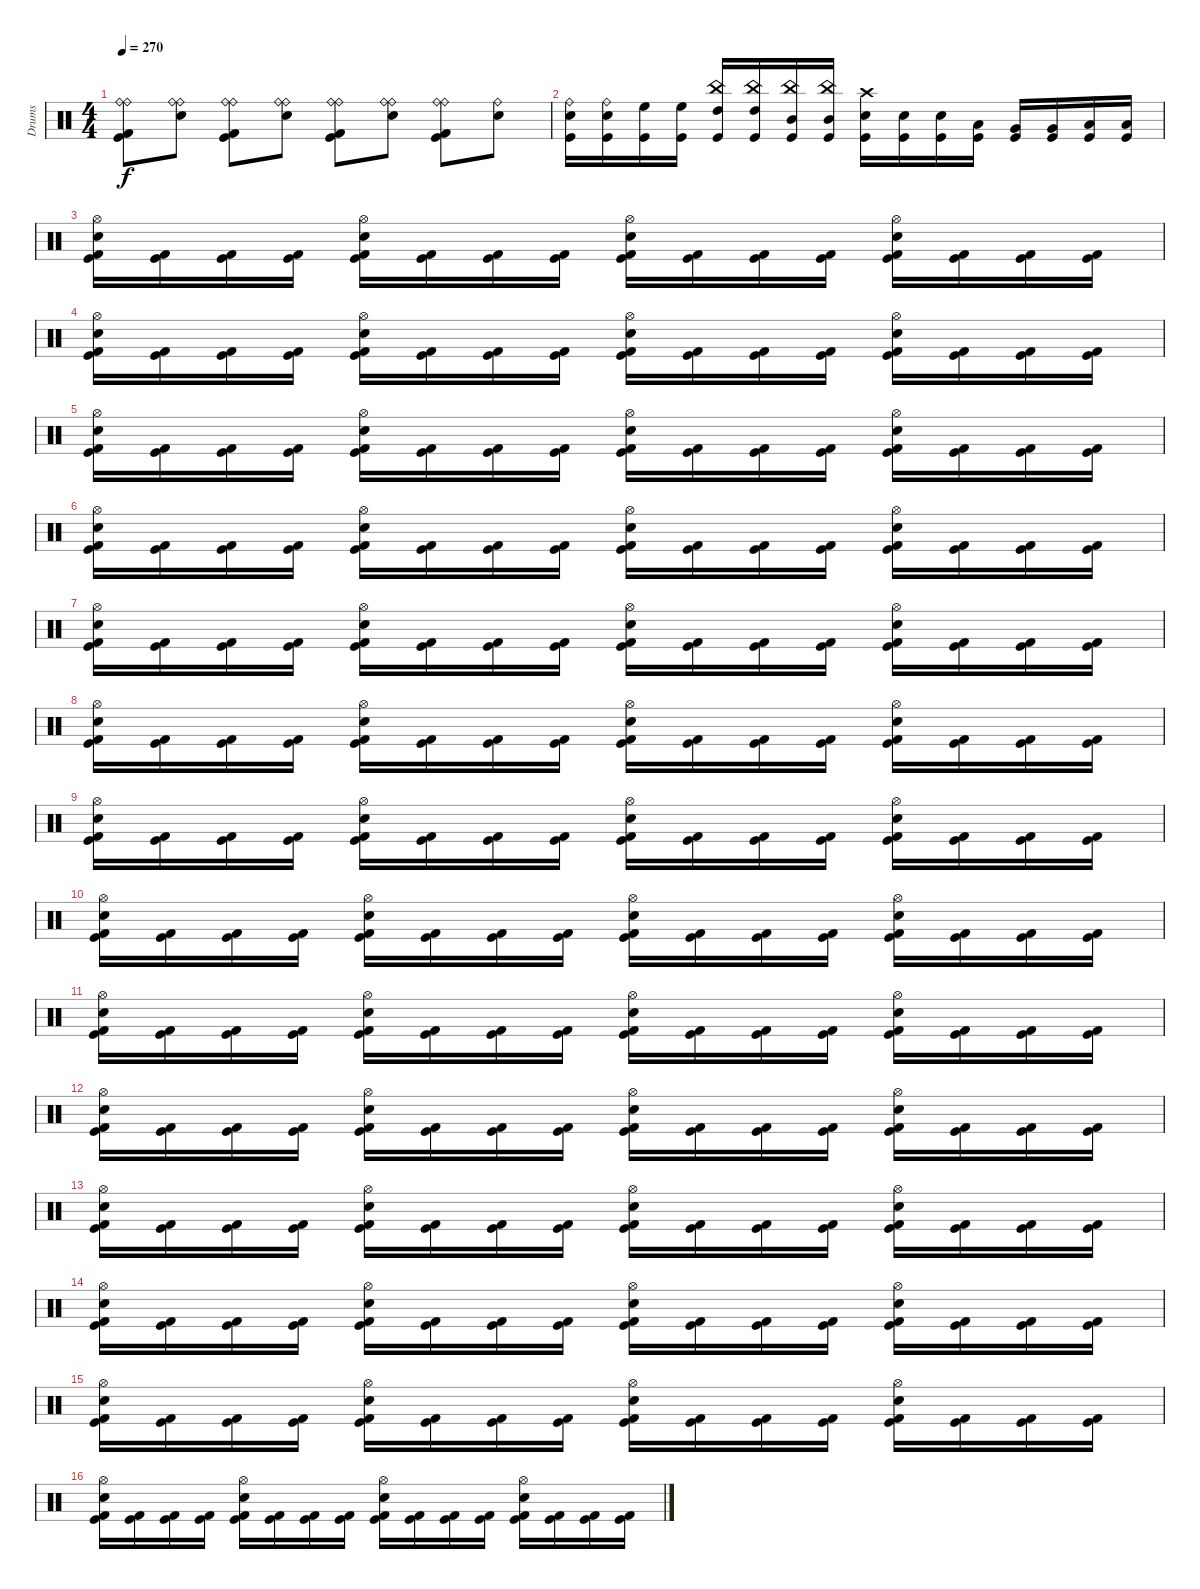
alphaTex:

\track ("Drums" "Drums") {instrument percussion}
\staff {score}
\articulation defaults
\ts (4 4)
\tempo 270
\clef neutral
\ks c
("Ride (bell)" "Ride (bell)" "Kick (hit) 2" "Kick (hit)").8{dy f} ("Ride (bell)" "Ride (bell)" "Electric Snare (hit)").8 ("Ride (bell)" "Ride (bell)" "Kick (hit) 2" "Kick (hit)").8 ("Ride (bell)" "Ride (bell)" "Electric Snare (hit)").8 ("Ride (bell)" "Ride (bell)" "Kick (hit) 2" "Kick (hit)").8 ("Ride (bell)" "Ride (bell)" "Electric Snare (hit)").8 ("Ride (bell)" "Ride (bell)" "Kick (hit) 2" "Kick (hit)").8 ("Ride (bell)" "Electric Snare (hit)").8 |
("Ride (bell)" "Electric Snare (hit)" "Kick (hit)").16 ("Ride (bell)" "Electric Snare (hit)" "Kick (hit)").16 ("High Floor Tom (hit)" "Kick (hit)").16 ("High Floor Tom (hit)" "Kick (hit)").16 ("China (hit)" "High Tom (hit)" "Kick (hit)").16 ("China (hit)" "High Tom (hit)" "Kick (hit)").16 ("China (hit)" "Mid Tom (hit)" "Kick (hit)").16 ("China (hit)" "Mid Tom (hit)" "Kick (hit)").16 ("Crash high (hit)" "Electric Snare (hit)" "Kick (hit)").16 ("Electric Snare (hit)" "Kick (hit)").16 ("Electric Snare (hit)" "Kick (hit)").16 ("Low Floor Tom (hit)" "Kick (hit)").16 ("Very Low Tom (hit)" "Kick (hit)").16 ("Very Low Tom (hit)" "Kick (hit)").16 ("Low Floor Tom (hit)" "Kick (hit)").16 ("Low Floor Tom (hit)" "Kick (hit)").16 |
("Kick (hit) 2" "Hi-Hat (open)" "Electric Snare (hit)" "Kick (hit)").16 ("Kick (hit) 2" "Kick (hit)").16 ("Kick (hit) 2" "Kick (hit)").16 ("Kick (hit) 2" "Kick (hit)").16 ("Kick (hit) 2" "Hi-Hat (open)" "Electric Snare (hit)" "Kick (hit)").16 ("Kick (hit) 2" "Kick (hit)").16 ("Kick (hit) 2" "Kick (hit)").16 ("Kick (hit) 2" "Kick (hit)").16 ("Kick (hit) 2" "Hi-Hat (open)" "Electric Snare (hit)" "Kick (hit)").16 ("Kick (hit) 2" "Kick (hit)").16 ("Kick (hit) 2" "Kick (hit)").16 ("Kick (hit) 2" "Kick (hit)").16 ("Kick (hit) 2" "Hi-Hat (open)" "Electric Snare (hit)" "Kick (hit)").16 ("Kick (hit) 2" "Kick (hit)").16 ("Kick (hit) 2" "Kick (hit)").16 ("Kick (hit) 2" "Kick (hit)").16 |
("Kick (hit) 2" "Hi-Hat (open)" "Electric Snare (hit)" "Kick (hit)").16 ("Kick (hit) 2" "Kick (hit)").16 ("Kick (hit) 2" "Kick (hit)").16 ("Kick (hit) 2" "Kick (hit)").16 ("Kick (hit) 2" "Hi-Hat (open)" "Electric Snare (hit)" "Kick (hit)").16 ("Kick (hit) 2" "Kick (hit)").16 ("Kick (hit) 2" "Kick (hit)").16 ("Kick (hit) 2" "Kick (hit)").16 ("Kick (hit) 2" "Hi-Hat (open)" "Electric Snare (hit)" "Kick (hit)").16 ("Kick (hit) 2" "Kick (hit)").16 ("Kick (hit) 2" "Kick (hit)").16 ("Kick (hit) 2" "Kick (hit)").16 ("Kick (hit) 2" "Hi-Hat (open)" "Electric Snare (hit)" "Kick (hit)").16 ("Kick (hit) 2" "Kick (hit)").16 ("Kick (hit) 2" "Kick (hit)").16 ("Kick (hit) 2" "Kick (hit)").16 |
("Kick (hit) 2" "Hi-Hat (open)" "Electric Snare (hit)" "Kick (hit)").16 ("Kick (hit) 2" "Kick (hit)").16 ("Kick (hit) 2" "Kick (hit)").16 ("Kick (hit) 2" "Kick (hit)").16 ("Kick (hit) 2" "Hi-Hat (open)" "Electric Snare (hit)" "Kick (hit)").16 ("Kick (hit) 2" "Kick (hit)").16 ("Kick (hit) 2" "Kick (hit)").16 ("Kick (hit) 2" "Kick (hit)").16 ("Kick (hit) 2" "Hi-Hat (open)" "Electric Snare (hit)" "Kick (hit)").16 ("Kick (hit) 2" "Kick (hit)").16 ("Kick (hit) 2" "Kick (hit)").16 ("Kick (hit) 2" "Kick (hit)").16 ("Kick (hit) 2" "Hi-Hat (open)" "Electric Snare (hit)" "Kick (hit)").16 ("Kick (hit) 2" "Kick (hit)").16 ("Kick (hit) 2" "Kick (hit)").16 ("Kick (hit) 2" "Kick (hit)").16 |
("Kick (hit) 2" "Hi-Hat (open)" "Electric Snare (hit)" "Kick (hit)").16 ("Kick (hit) 2" "Kick (hit)").16 ("Kick (hit) 2" "Kick (hit)").16 ("Kick (hit) 2" "Kick (hit)").16 ("Kick (hit) 2" "Hi-Hat (open)" "Electric Snare (hit)" "Kick (hit)").16 ("Kick (hit) 2" "Kick (hit)").16 ("Kick (hit) 2" "Kick (hit)").16 ("Kick (hit) 2" "Kick (hit)").16 ("Kick (hit) 2" "Hi-Hat (open)" "Electric Snare (hit)" "Kick (hit)").16 ("Kick (hit) 2" "Kick (hit)").16 ("Kick (hit) 2" "Kick (hit)").16 ("Kick (hit) 2" "Kick (hit)").16 ("Kick (hit) 2" "Hi-Hat (open)" "Electric Snare (hit)" "Kick (hit)").16 ("Kick (hit) 2" "Kick (hit)").16 ("Kick (hit) 2" "Kick (hit)").16 ("Kick (hit) 2" "Kick (hit)").16 |
("Kick (hit) 2" "Hi-Hat (open)" "Electric Snare (hit)" "Kick (hit)").16 ("Kick (hit) 2" "Kick (hit)").16 ("Kick (hit) 2" "Kick (hit)").16 ("Kick (hit) 2" "Kick (hit)").16 ("Kick (hit) 2" "Hi-Hat (open)" "Electric Snare (hit)" "Kick (hit)").16 ("Kick (hit) 2" "Kick (hit)").16 ("Kick (hit) 2" "Kick (hit)").16 ("Kick (hit) 2" "Kick (hit)").16 ("Kick (hit) 2" "Hi-Hat (open)" "Electric Snare (hit)" "Kick (hit)").16 ("Kick (hit) 2" "Kick (hit)").16 ("Kick (hit) 2" "Kick (hit)").16 ("Kick (hit) 2" "Kick (hit)").16 ("Kick (hit) 2" "Hi-Hat (open)" "Electric Snare (hit)" "Kick (hit)").16 ("Kick (hit) 2" "Kick (hit)").16 ("Kick (hit) 2" "Kick (hit)").16 ("Kick (hit) 2" "Kick (hit)").16 |
("Kick (hit) 2" "Hi-Hat (open)" "Electric Snare (hit)" "Kick (hit)").16 ("Kick (hit) 2" "Kick (hit)").16 ("Kick (hit) 2" "Kick (hit)").16 ("Kick (hit) 2" "Kick (hit)").16 ("Kick (hit) 2" "Hi-Hat (open)" "Electric Snare (hit)" "Kick (hit)").16 ("Kick (hit) 2" "Kick (hit)").16 ("Kick (hit) 2" "Kick (hit)").16 ("Kick (hit) 2" "Kick (hit)").16 ("Kick (hit) 2" "Hi-Hat (open)" "Electric Snare (hit)" "Kick (hit)").16 ("Kick (hit) 2" "Kick (hit)").16 ("Kick (hit) 2" "Kick (hit)").16 ("Kick (hit) 2" "Kick (hit)").16 ("Kick (hit) 2" "Hi-Hat (open)" "Electric Snare (hit)" "Kick (hit)").16 ("Kick (hit) 2" "Kick (hit)").16 ("Kick (hit) 2" "Kick (hit)").16 ("Kick (hit) 2" "Kick (hit)").16 |
("Kick (hit) 2" "Hi-Hat (open)" "Electric Snare (hit)" "Kick (hit)").16 ("Kick (hit) 2" "Kick (hit)").16 ("Kick (hit) 2" "Kick (hit)").16 ("Kick (hit) 2" "Kick (hit)").16 ("Kick (hit) 2" "Hi-Hat (open)" "Electric Snare (hit)" "Kick (hit)").16 ("Kick (hit) 2" "Kick (hit)").16 ("Kick (hit) 2" "Kick (hit)").16 ("Kick (hit) 2" "Kick (hit)").16 ("Kick (hit) 2" "Hi-Hat (open)" "Electric Snare (hit)" "Kick (hit)").16 ("Kick (hit) 2" "Kick (hit)").16 ("Kick (hit) 2" "Kick (hit)").16 ("Kick (hit) 2" "Kick (hit)").16 ("Kick (hit) 2" "Hi-Hat (open)" "Electric Snare (hit)" "Kick (hit)").16 ("Kick (hit) 2" "Kick (hit)").16 ("Kick (hit) 2" "Kick (hit)").16 ("Kick (hit) 2" "Kick (hit)").16 |
("Kick (hit) 2" "Hi-Hat (open)" "Electric Snare (hit)" "Kick (hit)").16 ("Kick (hit) 2" "Kick (hit)").16 ("Kick (hit) 2" "Kick (hit)").16 ("Kick (hit) 2" "Kick (hit)").16 ("Kick (hit) 2" "Hi-Hat (open)" "Electric Snare (hit)" "Kick (hit)").16 ("Kick (hit) 2" "Kick (hit)").16 ("Kick (hit) 2" "Kick (hit)").16 ("Kick (hit) 2" "Kick (hit)").16 ("Kick (hit) 2" "Hi-Hat (open)" "Electric Snare (hit)" "Kick (hit)").16 ("Kick (hit) 2" "Kick (hit)").16 ("Kick (hit) 2" "Kick (hit)").16 ("Kick (hit) 2" "Kick (hit)").16 ("Kick (hit) 2" "Hi-Hat (open)" "Electric Snare (hit)" "Kick (hit)").16 ("Kick (hit) 2" "Kick (hit)").16 ("Kick (hit) 2" "Kick (hit)").16 ("Kick (hit) 2" "Kick (hit)").16 |
("Kick (hit) 2" "Hi-Hat (open)" "Electric Snare (hit)" "Kick (hit)").16 ("Kick (hit) 2" "Kick (hit)").16 ("Kick (hit) 2" "Kick (hit)").16 ("Kick (hit) 2" "Kick (hit)").16 ("Kick (hit) 2" "Hi-Hat (open)" "Electric Snare (hit)" "Kick (hit)").16 ("Kick (hit) 2" "Kick (hit)").16 ("Kick (hit) 2" "Kick (hit)").16 ("Kick (hit) 2" "Kick (hit)").16 ("Kick (hit) 2" "Hi-Hat (open)" "Electric Snare (hit)" "Kick (hit)").16 ("Kick (hit) 2" "Kick (hit)").16 ("Kick (hit) 2" "Kick (hit)").16 ("Kick (hit) 2" "Kick (hit)").16 ("Kick (hit) 2" "Hi-Hat (open)" "Electric Snare (hit)" "Kick (hit)").16 ("Kick (hit) 2" "Kick (hit)").16 ("Kick (hit) 2" "Kick (hit)").16 ("Kick (hit) 2" "Kick (hit)").16 |
("Kick (hit) 2" "Hi-Hat (open)" "Electric Snare (hit)" "Kick (hit)").16 ("Kick (hit) 2" "Kick (hit)").16 ("Kick (hit) 2" "Kick (hit)").16 ("Kick (hit) 2" "Kick (hit)").16 ("Kick (hit) 2" "Hi-Hat (open)" "Electric Snare (hit)" "Kick (hit)").16 ("Kick (hit) 2" "Kick (hit)").16 ("Kick (hit) 2" "Kick (hit)").16 ("Kick (hit) 2" "Kick (hit)").16 ("Kick (hit) 2" "Hi-Hat (open)" "Electric Snare (hit)" "Kick (hit)").16 ("Kick (hit) 2" "Kick (hit)").16 ("Kick (hit) 2" "Kick (hit)").16 ("Kick (hit) 2" "Kick (hit)").16 ("Kick (hit) 2" "Hi-Hat (open)" "Electric Snare (hit)" "Kick (hit)").16 ("Kick (hit) 2" "Kick (hit)").16 ("Kick (hit) 2" "Kick (hit)").16 ("Kick (hit) 2" "Kick (hit)").16 |
("Kick (hit) 2" "Hi-Hat (open)" "Electric Snare (hit)" "Kick (hit)").16 ("Kick (hit) 2" "Kick (hit)").16 ("Kick (hit) 2" "Kick (hit)").16 ("Kick (hit) 2" "Kick (hit)").16 ("Kick (hit) 2" "Hi-Hat (open)" "Electric Snare (hit)" "Kick (hit)").16 ("Kick (hit) 2" "Kick (hit)").16 ("Kick (hit) 2" "Kick (hit)").16 ("Kick (hit) 2" "Kick (hit)").16 ("Kick (hit) 2" "Hi-Hat (open)" "Electric Snare (hit)" "Kick (hit)").16 ("Kick (hit) 2" "Kick (hit)").16 ("Kick (hit) 2" "Kick (hit)").16 ("Kick (hit) 2" "Kick (hit)").16 ("Kick (hit) 2" "Hi-Hat (open)" "Electric Snare (hit)" "Kick (hit)").16 ("Kick (hit) 2" "Kick (hit)").16 ("Kick (hit) 2" "Kick (hit)").16 ("Kick (hit) 2" "Kick (hit)").16 |
("Kick (hit) 2" "Hi-Hat (open)" "Electric Snare (hit)" "Kick (hit)").16 ("Kick (hit) 2" "Kick (hit)").16 ("Kick (hit) 2" "Kick (hit)").16 ("Kick (hit) 2" "Kick (hit)").16 ("Kick (hit) 2" "Hi-Hat (open)" "Electric Snare (hit)" "Kick (hit)").16 ("Kick (hit) 2" "Kick (hit)").16 ("Kick (hit) 2" "Kick (hit)").16 ("Kick (hit) 2" "Kick (hit)").16 ("Kick (hit) 2" "Hi-Hat (open)" "Electric Snare (hit)" "Kick (hit)").16 ("Kick (hit) 2" "Kick (hit)").16 ("Kick (hit) 2" "Kick (hit)").16 ("Kick (hit) 2" "Kick (hit)").16 ("Kick (hit) 2" "Hi-Hat (open)" "Electric Snare (hit)" "Kick (hit)").16 ("Kick (hit) 2" "Kick (hit)").16 ("Kick (hit) 2" "Kick (hit)").16 ("Kick (hit) 2" "Kick (hit)").16 |
("Kick (hit) 2" "Hi-Hat (open)" "Electric Snare (hit)" "Kick (hit)").16 ("Kick (hit) 2" "Kick (hit)").16 ("Kick (hit) 2" "Kick (hit)").16 ("Kick (hit) 2" "Kick (hit)").16 ("Kick (hit) 2" "Hi-Hat (open)" "Electric Snare (hit)" "Kick (hit)").16 ("Kick (hit) 2" "Kick (hit)").16 ("Kick (hit) 2" "Kick (hit)").16 ("Kick (hit) 2" "Kick (hit)").16 ("Kick (hit) 2" "Hi-Hat (open)" "Electric Snare (hit)" "Kick (hit)").16 ("Kick (hit) 2" "Kick (hit)").16 ("Kick (hit) 2" "Kick (hit)").16 ("Kick (hit) 2" "Kick (hit)").16 ("Kick (hit) 2" "Hi-Hat (open)" "Electric Snare (hit)" "Kick (hit)").16 ("Kick (hit) 2" "Kick (hit)").16 ("Kick (hit) 2" "Kick (hit)").16 ("Kick (hit) 2" "Kick (hit)").16 |
("Kick (hit) 2" "Hi-Hat (open)" "Electric Snare (hit)" "Kick (hit)").16 ("Kick (hit) 2" "Kick (hit)").16 ("Kick (hit) 2" "Kick (hit)").16 ("Kick (hit) 2" "Kick (hit)").16 ("Kick (hit) 2" "Hi-Hat (open)" "Electric Snare (hit)" "Kick (hit)").16 ("Kick (hit) 2" "Kick (hit)").16 ("Kick (hit) 2" "Kick (hit)").16 ("Kick (hit) 2" "Kick (hit)").16 ("Kick (hit) 2" "Hi-Hat (open)" "Electric Snare (hit)" "Kick (hit)").16 ("Kick (hit) 2" "Kick (hit)").16 ("Kick (hit) 2" "Kick (hit)").16 ("Kick (hit) 2" "Kick (hit)").16 ("Kick (hit) 2" "Hi-Hat (open)" "Electric Snare (hit)" "Kick (hit)").16 ("Kick (hit) 2" "Kick (hit)").16 ("Kick (hit) 2" "Kick (hit)").16 ("Kick (hit) 2" "Kick (hit)").16
